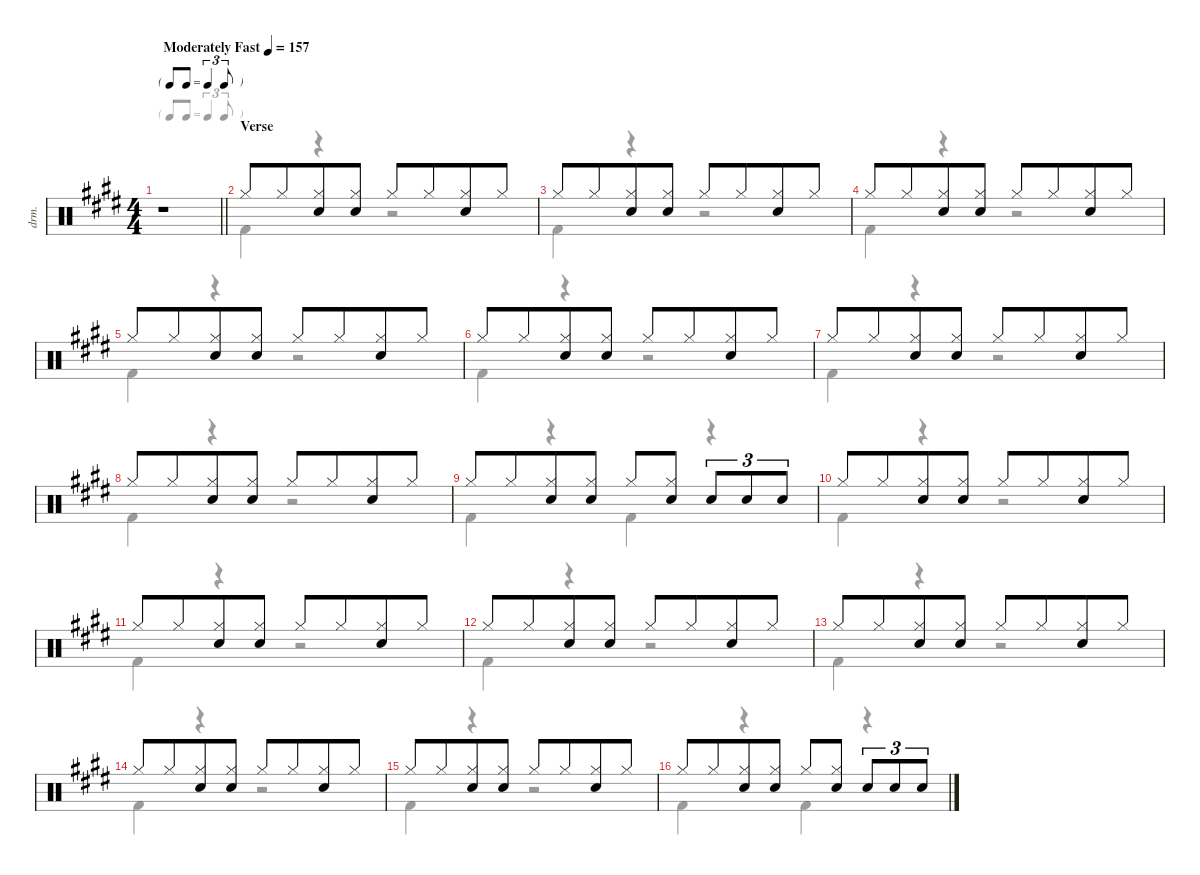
\defaultSystemsLayout 4
\hideDynamics
\bracketExtendMode nobrackets
\otherSystemsTrackNameOrientation horizontal
\track ("Drums" "drm.") {instrument percussion}
\staff {score}
\articulation defaults
\voice
\ts (4 4)
\beaming (8 4 4)
\tf triplet8th
\tempo (157 "Moderately Fast")
\clef neutral
\barLineRight lightlight
\ks e
r.1{dy f beam Up} |
\section ("" "Verse")
"Hi-Hat (closed)"{acc forcenatural}.8{beam Up} "Hi-Hat (closed)"{acc forcenatural}.8{beam Up} ("Hi-Hat (closed)"{acc forcenatural} "Snare (hit) 2"{acc forcenatural}).8{beam Up} ("Hi-Hat (closed)"{acc forcenatural} "Snare (hit) 2"{acc forcenatural}).8{beam Up} "Hi-Hat (closed)"{acc forcenatural}.8{beam Up} "Hi-Hat (closed)"{acc forcenatural}.8{beam Up} ("Hi-Hat (closed)"{acc forcenatural} "Snare (hit) 2"{acc forcenatural}).8{beam Up} "Hi-Hat (closed)"{acc forcenatural}.8{beam Up} |
"Hi-Hat (closed)"{acc forcenatural}.8{beam Up} "Hi-Hat (closed)"{acc forcenatural}.8{beam Up} ("Hi-Hat (closed)"{acc forcenatural} "Snare (hit) 2"{acc forcenatural}).8{beam Up} ("Hi-Hat (closed)"{acc forcenatural} "Snare (hit) 2"{acc forcenatural}).8{beam Up} "Hi-Hat (closed)"{acc forcenatural}.8{beam Up} "Hi-Hat (closed)"{acc forcenatural}.8{beam Up} ("Hi-Hat (closed)"{acc forcenatural} "Snare (hit) 2"{acc forcenatural}).8{beam Up} "Hi-Hat (closed)"{acc forcenatural}.8{beam Up} |
"Hi-Hat (closed)"{acc forcenatural}.8{beam Up} "Hi-Hat (closed)"{acc forcenatural}.8{beam Up} ("Hi-Hat (closed)"{acc forcenatural} "Snare (hit) 2"{acc forcenatural}).8{beam Up} ("Hi-Hat (closed)"{acc forcenatural} "Snare (hit) 2"{acc forcenatural}).8{beam Up} "Hi-Hat (closed)"{acc forcenatural}.8{beam Up} "Hi-Hat (closed)"{acc forcenatural}.8{beam Up} ("Hi-Hat (closed)"{acc forcenatural} "Snare (hit) 2"{acc forcenatural}).8{beam Up} "Hi-Hat (closed)"{acc forcenatural}.8{beam Up} |
"Hi-Hat (closed)"{acc forcenatural}.8{beam Up} "Hi-Hat (closed)"{acc forcenatural}.8{beam Up} ("Hi-Hat (closed)"{acc forcenatural} "Snare (hit) 2"{acc forcenatural}).8{beam Up} ("Hi-Hat (closed)"{acc forcenatural} "Snare (hit) 2"{acc forcenatural}).8{beam Up} "Hi-Hat (closed)"{acc forcenatural}.8{beam Up} "Hi-Hat (closed)"{acc forcenatural}.8{beam Up} ("Hi-Hat (closed)"{acc forcenatural} "Snare (hit) 2"{acc forcenatural}).8{beam Up} "Hi-Hat (closed)"{acc forcenatural}.8{beam Up} |
"Hi-Hat (closed)"{acc forcenatural}.8{beam Up} "Hi-Hat (closed)"{acc forcenatural}.8{beam Up} ("Hi-Hat (closed)"{acc forcenatural} "Snare (hit) 2"{acc forcenatural}).8{beam Up} ("Hi-Hat (closed)"{acc forcenatural} "Snare (hit) 2"{acc forcenatural}).8{beam Up} "Hi-Hat (closed)"{acc forcenatural}.8{beam Up} "Hi-Hat (closed)"{acc forcenatural}.8{beam Up} ("Hi-Hat (closed)"{acc forcenatural} "Snare (hit) 2"{acc forcenatural}).8{beam Up} "Hi-Hat (closed)"{acc forcenatural}.8{beam Up} |
"Hi-Hat (closed)"{acc forcenatural}.8{beam Up} "Hi-Hat (closed)"{acc forcenatural}.8{beam Up} ("Hi-Hat (closed)"{acc forcenatural} "Snare (hit) 2"{acc forcenatural}).8{beam Up} ("Hi-Hat (closed)"{acc forcenatural} "Snare (hit) 2"{acc forcenatural}).8{beam Up} "Hi-Hat (closed)"{acc forcenatural}.8{beam Up} "Hi-Hat (closed)"{acc forcenatural}.8{beam Up} ("Hi-Hat (closed)"{acc forcenatural} "Snare (hit) 2"{acc forcenatural}).8{beam Up} "Hi-Hat (closed)"{acc forcenatural}.8{beam Up} |
"Hi-Hat (closed)"{acc forcenatural}.8{beam Up} "Hi-Hat (closed)"{acc forcenatural}.8{beam Up} ("Hi-Hat (closed)"{acc forcenatural} "Snare (hit) 2"{acc forcenatural}).8{beam Up} ("Hi-Hat (closed)"{acc forcenatural} "Snare (hit) 2"{acc forcenatural}).8{beam Up} "Hi-Hat (closed)"{acc forcenatural}.8{beam Up} "Hi-Hat (closed)"{acc forcenatural}.8{beam Up} ("Hi-Hat (closed)"{acc forcenatural} "Snare (hit) 2"{acc forcenatural}).8{beam Up} "Hi-Hat (closed)"{acc forcenatural}.8{beam Up} |
"Hi-Hat (closed)"{acc forcenatural}.8{beam Up} "Hi-Hat (closed)"{acc forcenatural}.8{beam Up} ("Hi-Hat (closed)"{acc forcenatural} "Snare (hit) 2"{acc forcenatural}).8{beam Up} ("Hi-Hat (closed)"{acc forcenatural} "Snare (hit) 2"{acc forcenatural}).8{beam Up} "Hi-Hat (closed)"{acc forcenatural}.8{beam Up} ("Hi-Hat (closed)"{acc forcenatural} "Snare (hit) 2"{acc forcenatural}).8{beam Up} "Snare (hit) 2"{acc forcenatural}.8{tu (3 2) beam Up} "Snare (hit) 2"{acc forcenatural}.8{tu (3 2) beam Up} "Snare (hit) 2"{acc forcenatural}.8{tu (3 2) beam Up} |
"Hi-Hat (closed)"{acc forcenatural}.8{beam Up} "Hi-Hat (closed)"{acc forcenatural}.8{beam Up} ("Hi-Hat (closed)"{acc forcenatural} "Snare (hit) 2"{acc forcenatural}).8{beam Up} ("Hi-Hat (closed)"{acc forcenatural} "Snare (hit) 2"{acc forcenatural}).8{beam Up} "Hi-Hat (closed)"{acc forcenatural}.8{beam Up} "Hi-Hat (closed)"{acc forcenatural}.8{beam Up} ("Hi-Hat (closed)"{acc forcenatural} "Snare (hit) 2"{acc forcenatural}).8{beam Up} "Hi-Hat (closed)"{acc forcenatural}.8{beam Up} |
"Hi-Hat (closed)"{acc forcenatural}.8{beam Up} "Hi-Hat (closed)"{acc forcenatural}.8{beam Up} ("Hi-Hat (closed)"{acc forcenatural} "Snare (hit) 2"{acc forcenatural}).8{beam Up} ("Hi-Hat (closed)"{acc forcenatural} "Snare (hit) 2"{acc forcenatural}).8{beam Up} "Hi-Hat (closed)"{acc forcenatural}.8{beam Up} "Hi-Hat (closed)"{acc forcenatural}.8{beam Up} ("Hi-Hat (closed)"{acc forcenatural} "Snare (hit) 2"{acc forcenatural}).8{beam Up} "Hi-Hat (closed)"{acc forcenatural}.8{beam Up} |
"Hi-Hat (closed)"{acc forcenatural}.8{beam Up} "Hi-Hat (closed)"{acc forcenatural}.8{beam Up} ("Hi-Hat (closed)"{acc forcenatural} "Snare (hit) 2"{acc forcenatural}).8{beam Up} ("Hi-Hat (closed)"{acc forcenatural} "Snare (hit) 2"{acc forcenatural}).8{beam Up} "Hi-Hat (closed)"{acc forcenatural}.8{beam Up} "Hi-Hat (closed)"{acc forcenatural}.8{beam Up} ("Hi-Hat (closed)"{acc forcenatural} "Snare (hit) 2"{acc forcenatural}).8{beam Up} "Hi-Hat (closed)"{acc forcenatural}.8{beam Up} |
"Hi-Hat (closed)"{acc forcenatural}.8{beam Up} "Hi-Hat (closed)"{acc forcenatural}.8{beam Up} ("Hi-Hat (closed)"{acc forcenatural} "Snare (hit) 2"{acc forcenatural}).8{beam Up} ("Hi-Hat (closed)"{acc forcenatural} "Snare (hit) 2"{acc forcenatural}).8{beam Up} "Hi-Hat (closed)"{acc forcenatural}.8{beam Up} "Hi-Hat (closed)"{acc forcenatural}.8{beam Up} ("Hi-Hat (closed)"{acc forcenatural} "Snare (hit) 2"{acc forcenatural}).8{beam Up} "Hi-Hat (closed)"{acc forcenatural}.8{beam Up} |
"Hi-Hat (closed)"{acc forcenatural}.8{beam Up} "Hi-Hat (closed)"{acc forcenatural}.8{beam Up} ("Hi-Hat (closed)"{acc forcenatural} "Snare (hit) 2"{acc forcenatural}).8{beam Up} ("Hi-Hat (closed)"{acc forcenatural} "Snare (hit) 2"{acc forcenatural}).8{beam Up} "Hi-Hat (closed)"{acc forcenatural}.8{beam Up} "Hi-Hat (closed)"{acc forcenatural}.8{beam Up} ("Hi-Hat (closed)"{acc forcenatural} "Snare (hit) 2"{acc forcenatural}).8{beam Up} "Hi-Hat (closed)"{acc forcenatural}.8{beam Up} |
"Hi-Hat (closed)"{acc forcenatural}.8{beam Up} "Hi-Hat (closed)"{acc forcenatural}.8{beam Up} ("Hi-Hat (closed)"{acc forcenatural} "Snare (hit) 2"{acc forcenatural}).8{beam Up} ("Hi-Hat (closed)"{acc forcenatural} "Snare (hit) 2"{acc forcenatural}).8{beam Up} "Hi-Hat (closed)"{acc forcenatural}.8{beam Up} "Hi-Hat (closed)"{acc forcenatural}.8{beam Up} ("Hi-Hat (closed)"{acc forcenatural} "Snare (hit) 2"{acc forcenatural}).8{beam Up} "Hi-Hat (closed)"{acc forcenatural}.8{beam Up} |
"Hi-Hat (closed)"{acc forcenatural}.8{beam Up} "Hi-Hat (closed)"{acc forcenatural}.8{beam Up} ("Hi-Hat (closed)"{acc forcenatural} "Snare (hit) 2"{acc forcenatural}).8{beam Up} ("Hi-Hat (closed)"{acc forcenatural} "Snare (hit) 2"{acc forcenatural}).8{beam Up} "Hi-Hat (closed)"{acc forcenatural}.8{beam Up} ("Hi-Hat (closed)"{acc forcenatural} "Snare (hit) 2"{acc forcenatural}).8{beam Up} "Snare (hit) 2"{acc forcenatural}.8{tu (3 2) beam Up} "Snare (hit) 2"{acc forcenatural}.8{tu (3 2) beam Up} "Snare (hit) 2"{acc forcenatural}.8{tu (3 2) beam Up}
\voice
\clef neutral
\ottava regular
\simile none
\barLineRight lightlight
\ks e
r.1{dy f beam Down} |
"Kick (hit) 2"{acc forcenatural}.4{beam Down} r.4{beam Down} r.2{beam Down} |
"Kick (hit) 2"{acc forcenatural}.4{beam Down} r.4{beam Down} r.2{beam Down} |
"Kick (hit) 2"{acc forcenatural}.4{beam Down} r.4{beam Down} r.2{beam Down} |
"Kick (hit) 2"{acc forcenatural}.4{beam Down} r.4{beam Down} r.2{beam Down} |
"Kick (hit) 2"{acc forcenatural}.4{beam Down} r.4{beam Down} r.2{beam Down} |
"Kick (hit) 2"{acc forcenatural}.4{beam Down} r.4{beam Down} r.2{beam Down} |
"Kick (hit) 2"{acc forcenatural}.4{beam Down} r.4{beam Down} r.2{beam Down} |
"Kick (hit) 2"{acc forcenatural}.4{beam Down} r.4{beam Down} "Kick (hit) 2"{acc forcenatural}.4{beam Down} r.4{beam Down} |
"Kick (hit) 2"{acc forcenatural}.4{beam Down} r.4{beam Down} r.2{beam Down} |
"Kick (hit) 2"{acc forcenatural}.4{beam Down} r.4{beam Down} r.2{beam Down} |
"Kick (hit) 2"{acc forcenatural}.4{beam Down} r.4{beam Down} r.2{beam Down} |
"Kick (hit) 2"{acc forcenatural}.4{beam Down} r.4{beam Down} r.2{beam Down} |
"Kick (hit) 2"{acc forcenatural}.4{beam Down} r.4{beam Down} r.2{beam Down} |
"Kick (hit) 2"{acc forcenatural}.4{beam Down} r.4{beam Down} r.2{beam Down} |
"Kick (hit) 2"{acc forcenatural}.4{beam Down} r.4{beam Down} "Kick (hit) 2"{acc forcenatural}.4{beam Down} r.4{beam Down}
